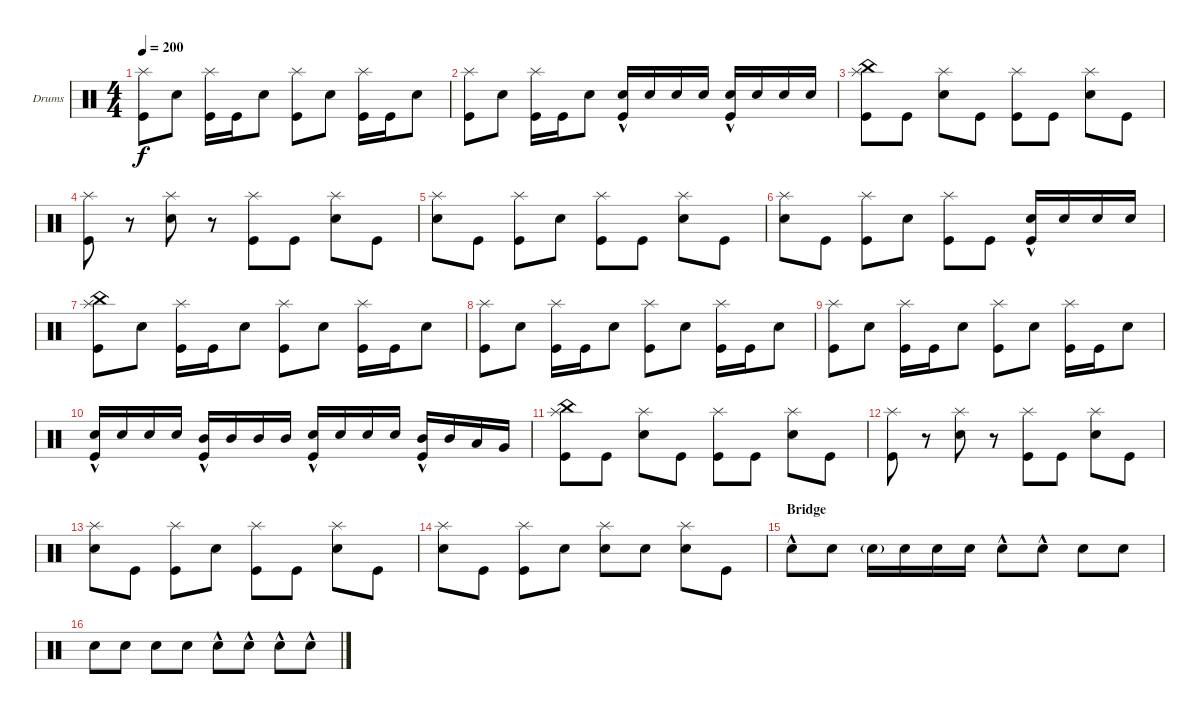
\defaultSystemsLayout 4
\bracketExtendMode groupsimilarinstruments
\firstSystemTrackNameOrientation horizontal
\otherSystemsTrackNameOrientation horizontal
\track ("Drumkit" "Drums") {instrument percussion}
\staff {score}
\articulation defaults
\ts (4 4)
\tempo 200
\clef neutral
\ks c
("Splash (hit)" "Kick (hit)").8{dy f} "Snare (hit) 2".8 ("Splash (hit)" "Kick (hit)").16 "Kick (hit)".16 "Snare (hit) 2".8 ("Splash (hit)" "Kick (hit)").8 "Snare (hit) 2".8 ("Splash (hit)" "Kick (hit)").16 "Kick (hit)".16 "Snare (hit) 2".8 |
("Splash (hit)" "Kick (hit)").8 "Snare (hit) 2".8 ("Splash (hit)" "Kick (hit)").16 "Kick (hit)".16 "Snare (hit) 2".8 ("Kick (hit)" "Snare (hit) 2"{hac}).16 "Snare (hit) 2".16 "Snare (hit) 2".16 "Snare (hit) 2".16 ("Kick (hit)" "Snare (hit) 2"{hac}).16 "Snare (hit) 2".16 "Snare (hit) 2".16 "Snare (hit) 2".16 |
("Kick (hit)" "Splash (hit)" "China (hit)").8 "Kick (hit)".8 ("Splash (hit)" "Snare (hit) 2").8 "Kick (hit)".8 ("Kick (hit)" "Splash (hit)").8 "Kick (hit)".8 ("Splash (hit)" "Snare (hit) 2").8 "Kick (hit)".8 |
("Kick (hit)" "Splash (hit)").8 r.8 ("Splash (hit)" "Snare (hit) 2").8 r.8 ("Kick (hit)" "Splash (hit)").8 "Kick (hit)".8 ("Splash (hit)" "Snare (hit) 2").8 "Kick (hit)".8 |
("Splash (hit)" "Snare (hit) 2").8 "Kick (hit)".8 ("Splash (hit)" "Kick (hit)").8 "Snare (hit) 2".8 ("Kick (hit)" "Splash (hit)").8 "Kick (hit)".8 ("Splash (hit)" "Snare (hit) 2").8 "Kick (hit)".8 |
("Splash (hit)" "Snare (hit) 2").8 "Kick (hit)".8 ("Splash (hit)" "Kick (hit)").8 "Snare (hit) 2".8 ("Kick (hit)" "Splash (hit)").8 "Kick (hit)".8 ("Kick (hit)" "Snare (hit) 2"{hac}).16 "Snare (hit) 2".16 "Snare (hit) 2".16 "Snare (hit) 2".16 |
("Splash (hit)" "Kick (hit)" "China (hit)").8 "Snare (hit) 2".8 ("Splash (hit)" "Kick (hit)").16 "Kick (hit)".16 "Snare (hit) 2".8 ("Splash (hit)" "Kick (hit)").8 "Snare (hit) 2".8 ("Splash (hit)" "Kick (hit)").16 "Kick (hit)".16 "Snare (hit) 2".8 |
("Splash (hit)" "Kick (hit)").8 "Snare (hit) 2".8 ("Splash (hit)" "Kick (hit)").16 "Kick (hit)".16 "Snare (hit) 2".8 ("Splash (hit)" "Kick (hit)").8 "Snare (hit) 2".8 ("Splash (hit)" "Kick (hit)").16 "Kick (hit)".16 "Snare (hit) 2".8 |
("Splash (hit)" "Kick (hit)").8 "Snare (hit) 2".8 ("Splash (hit)" "Kick (hit)").16 "Kick (hit)".16 "Snare (hit) 2".8 ("Splash (hit)" "Kick (hit)").8 "Snare (hit) 2".8 ("Splash (hit)" "Kick (hit)").16 "Kick (hit)".16 "Snare (hit) 2".8 |
("Kick (hit)" "Snare (hit) 2"{hac}).16 "Snare (hit) 2".16 "Snare (hit) 2".16 "Snare (hit) 2".16 ("Kick (hit)" "Mid Tom (hit)"{hac}).16 "Mid Tom (hit)".16 "Mid Tom (hit)".16 "Mid Tom (hit)".16 ("Kick (hit)" "Snare (hit) 2"{hac}).16 "Snare (hit) 2".16 "Snare (hit) 2".16 "Snare (hit) 2".16 ("Kick (hit)" "Mid Tom (hit)"{hac}).16 "Mid Tom (hit)".16 "Low Tom (hit)".16 "Very Low Tom (hit)".16 |
("Kick (hit)" "Splash (hit)" "China (hit)").8 "Kick (hit)".8 ("Splash (hit)" "Snare (hit) 2").8 "Kick (hit)".8 ("Kick (hit)" "Splash (hit)").8 "Kick (hit)".8 ("Splash (hit)" "Snare (hit) 2").8 "Kick (hit)".8 |
("Kick (hit)" "Splash (hit)").8 r.8 ("Splash (hit)" "Snare (hit) 2").8 r.8 ("Kick (hit)" "Splash (hit)").8 "Kick (hit)".8 ("Splash (hit)" "Snare (hit) 2").8 "Kick (hit)".8 |
("Splash (hit)" "Snare (hit) 2").8 "Kick (hit)".8 ("Splash (hit)" "Kick (hit)").8 "Snare (hit) 2".8 ("Kick (hit)" "Splash (hit)").8 "Kick (hit)".8 ("Splash (hit)" "Snare (hit) 2").8 "Kick (hit)".8 |
("Splash (hit)" "Snare (hit) 2").8 "Kick (hit)".8 ("Splash (hit)" "Kick (hit)").8 "Snare (hit) 2".8 ("Splash (hit)" "Snare (hit) 2").8 "Snare (hit) 2".8 ("Splash (hit)" "Snare (hit) 2").8 "Kick (hit)".8 |
\section ("" "Bridge")
"Snare (hit) 2"{hac}.8 "Snare (hit) 2".8 "Snare (hit) 2"{g}.16 "Snare (hit) 2".16 "Snare (hit) 2".16 "Snare (hit) 2".16 "Snare (hit) 2"{hac}.8 "Snare (hit) 2"{hac}.8 "Snare (hit) 2".8 "Snare (hit) 2".8 |
"Snare (hit) 2".8 "Snare (hit) 2".8 "Snare (hit) 2".8 "Snare (hit) 2".8 "Snare (hit) 2"{hac}.8 "Snare (hit) 2"{hac}.8 "Snare (hit) 2"{hac}.8 "Snare (hit) 2"{hac}.8
